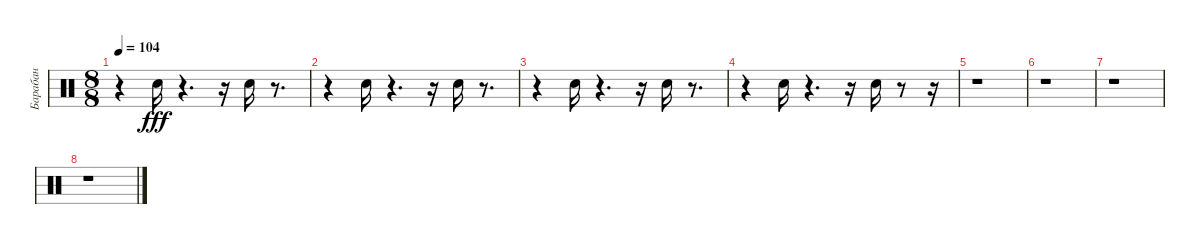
\track ("Барабан" "Барабан") {instrument percussion}
\staff {score}
\articulation defaults
\ts (8 8)
\tempo 104
\clef neutral
\ks c
r.4{dy fff} "Snare (hit) 2".16 r.4{d} r.16 "Snare (hit) 2".16 r.8{d} |
r.4 "Snare (hit) 2".16 r.4{d} r.16 "Snare (hit) 2".16 r.8{d} |
r.4 "Snare (hit) 2".16 r.4{d} r.16 "Snare (hit) 2".16 r.8{d} |
r.4 "Snare (hit) 2".16 r.4{d} r.16 "Snare (hit) 2".16 r.8 r.16 |
r.1 |
r.1 |
r.1 |
r.1
